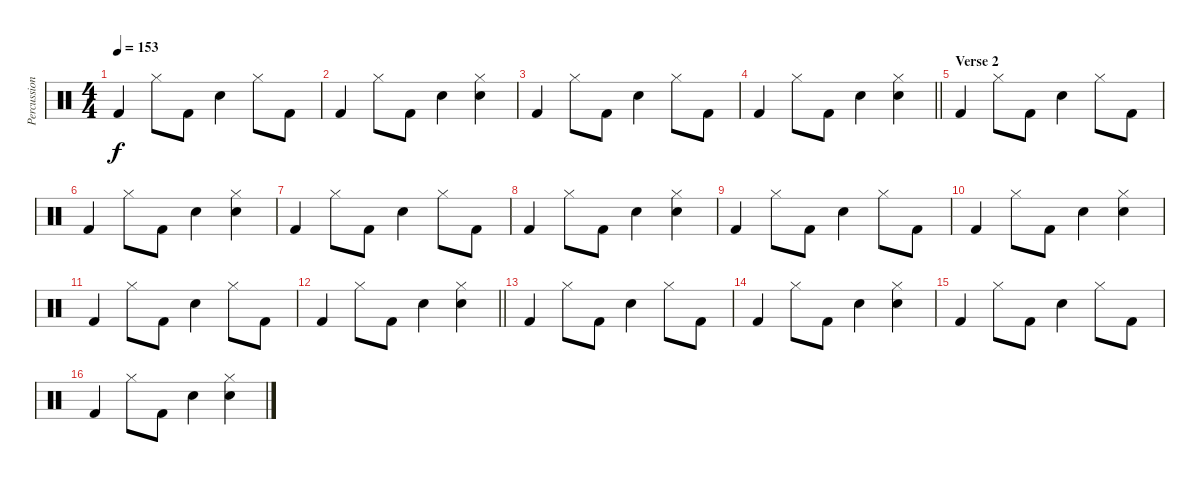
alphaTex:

\track ("Percussion" "Percussion") {instrument percussion}
\staff {score}
\articulation defaults
\ts (4 4)
\tempo 153
\clef neutral
\ks c "Kick (hit) 2".4{dy f} "Hi-Hat (closed)".8 "Kick (hit) 2".8 "Snare (hit) 2".4 "Hi-Hat (closed)".8 "Kick (hit) 2".8
|
"Kick (hit) 2".4 "Hi-Hat (closed)".8 "Kick (hit) 2".8 "Snare (hit) 2".4 ("Snare (hit) 2" "Hi-Hat (closed)").4 |
"Kick (hit) 2".4 "Hi-Hat (closed)".8 "Kick (hit) 2".8 "Snare (hit) 2".4 "Hi-Hat (closed)".8 "Kick (hit) 2".8 |
\barLineRight lightlight "Kick (hit) 2".4 "Hi-Hat (closed)".8 "Kick (hit) 2".8 "Snare (hit) 2".4
("Snare (hit) 2" "Hi-Hat (closed)").4 |
\section ("" "Verse 2")
"Kick (hit) 2".4 "Hi-Hat (closed)".8 "Kick (hit) 2".8 "Snare (hit) 2".4 "Hi-Hat (closed)".8 "Kick (hit) 2".8 |
"Kick (hit) 2".4 "Hi-Hat (closed)".8 "Kick (hit) 2".8 "Snare (hit) 2".4 ("Snare (hit) 2" "Hi-Hat (closed)").4 |
"Kick (hit) 2".4 "Hi-Hat (closed)".8 "Kick (hit) 2".8 "Snare (hit) 2".4 "Hi-Hat (closed)".8 "Kick (hit) 2".8 |
"Kick (hit) 2".4 "Hi-Hat (closed)".8 "Kick (hit) 2".8 "Snare (hit) 2".4 ("Snare (hit) 2" "Hi-Hat (closed)").4 |
"Kick (hit) 2".4 "Hi-Hat (closed)".8 "Kick (hit) 2".8 "Snare (hit) 2".4 "Hi-Hat (closed)".8 "Kick (hit) 2".8 |
"Kick (hit) 2".4 "Hi-Hat (closed)".8 "Kick (hit) 2".8 "Snare (hit) 2".4 ("Snare (hit) 2" "Hi-Hat (closed)").4 |
"Kick (hit) 2".4 "Hi-Hat (closed)".8 "Kick (hit) 2".8 "Snare (hit) 2".4 "Hi-Hat (closed)".8 "Kick (hit) 2".8 |
\barLineRight lightlight "Kick (hit) 2".4 "Hi-Hat (closed)".8 "Kick (hit) 2".8 "Snare (hit) 2".4
("Snare (hit) 2" "Hi-Hat (closed)").4 |
"Kick (hit) 2".4 "Hi-Hat (closed)".8 "Kick (hit) 2".8 "Snare (hit) 2".4 "Hi-Hat (closed)".8 "Kick (hit) 2".8 |
"Kick (hit) 2".4 "Hi-Hat (closed)".8 "Kick (hit) 2".8 "Snare (hit) 2".4 ("Snare (hit) 2" "Hi-Hat (closed)").4 |
"Kick (hit) 2".4 "Hi-Hat (closed)".8 "Kick (hit) 2".8 "Snare (hit) 2".4 "Hi-Hat (closed)".8 "Kick (hit) 2".8 |
"Kick (hit) 2".4 "Hi-Hat (closed)".8 "Kick (hit) 2".8 "Snare (hit) 2".4 ("Snare (hit) 2" "Hi-Hat (closed)").4
